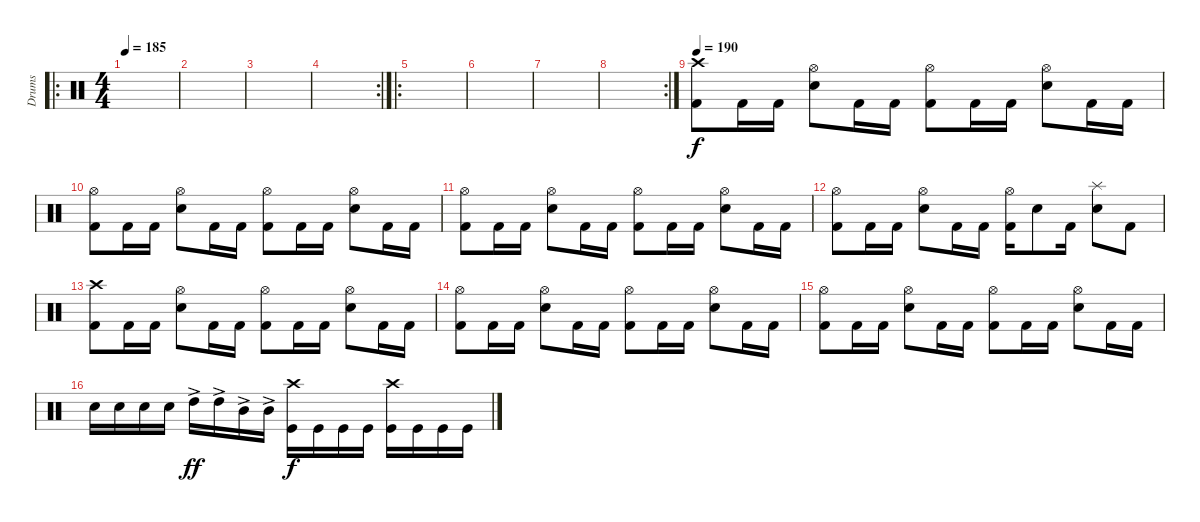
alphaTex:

\track ("Drums" "Drums") {instrument percussion}
\staff {score}
\articulation defaults
\ro
\ts (4 4)
\tempo 185
\clef neutral
\ks c
|
|
|
\rc 2
|
\ro
|
|
|
\rc 2
|
\tempo 185
\tempo 190
("Kick (hit) 2" "Crash high (hit)").8 "Kick (hit) 2".16 "Kick (hit) 2".16 ("Snare (hit) 2" "Hi-Hat (open)").8 "Kick (hit) 2".16 "Kick (hit) 2".16 ("Kick (hit) 2" "Hi-Hat (open)").8 "Kick (hit) 2".16 "Kick (hit) 2".16 ("Snare (hit) 2" "Hi-Hat (open)").8 "Kick (hit) 2".16 "Kick (hit) 2".16 |
("Kick (hit) 2" "Hi-Hat (open)").8 "Kick (hit) 2".16 "Kick (hit) 2".16 ("Snare (hit) 2" "Hi-Hat (open)").8 "Kick (hit) 2".16 "Kick (hit) 2".16 ("Kick (hit) 2" "Hi-Hat (open)").8 "Kick (hit) 2".16 "Kick (hit) 2".16 ("Snare (hit) 2" "Hi-Hat (open)").8 "Kick (hit) 2".16 "Kick (hit) 2".16 |
("Kick (hit) 2" "Hi-Hat (open)").8 "Kick (hit) 2".16 "Kick (hit) 2".16 ("Snare (hit) 2" "Hi-Hat (open)").8 "Kick (hit) 2".16 "Kick (hit) 2".16 ("Kick (hit) 2" "Hi-Hat (open)").8 "Kick (hit) 2".16 "Kick (hit) 2".16 ("Snare (hit) 2" "Hi-Hat (open)").8 "Kick (hit) 2".16 "Kick (hit) 2".16 |
("Kick (hit) 2" "Hi-Hat (open)").8 "Kick (hit) 2".16 "Kick (hit) 2".16 ("Snare (hit) 2" "Hi-Hat (open)").8 "Kick (hit) 2".16 "Kick (hit) 2".16 ("Kick (hit) 2" "Hi-Hat (open)").16 "Snare (hit) 2".8 "Kick (hit) 2".16 ("Splash (hit)" "Snare (hit) 2").8 "Kick (hit) 2".8 |
("Kick (hit) 2" "Crash high (hit)").8 "Kick (hit) 2".16 "Kick (hit) 2".16 ("Snare (hit) 2" "Hi-Hat (open)").8 "Kick (hit) 2".16 "Kick (hit) 2".16 ("Kick (hit) 2" "Hi-Hat (open)").8 "Kick (hit) 2".16 "Kick (hit) 2".16 ("Snare (hit) 2" "Hi-Hat (open)").8 "Kick (hit) 2".16 "Kick (hit) 2".16 |
("Kick (hit) 2" "Hi-Hat (open)").8 "Kick (hit) 2".16 "Kick (hit) 2".16 ("Snare (hit) 2" "Hi-Hat (open)").8 "Kick (hit) 2".16 "Kick (hit) 2".16 ("Kick (hit) 2" "Hi-Hat (open)").8 "Kick (hit) 2".16 "Kick (hit) 2".16 ("Snare (hit) 2" "Hi-Hat (open)").8 "Kick (hit) 2".16 "Kick (hit) 2".16 |
("Kick (hit) 2" "Hi-Hat (open)").8 "Kick (hit) 2".16 "Kick (hit) 2".16 ("Snare (hit) 2" "Hi-Hat (open)").8 "Kick (hit) 2".16 "Kick (hit) 2".16 ("Kick (hit) 2" "Hi-Hat (open)").8 "Kick (hit) 2".16 "Kick (hit) 2".16 ("Snare (hit) 2" "Hi-Hat (open)").8 "Kick (hit) 2".16 "Kick (hit) 2".16 |
"Electric Snare (hit)".16 "Snare (hit) 2".16 "Snare (hit) 2".16 "Snare (hit) 2".16 "High Tom (hit)"{ac}.16{dy ff} "High Tom (hit)"{ac}.16 "Mid Tom (hit)"{ac}.16 "Mid Tom (hit)"{ac}.16 ("Kick (hit)" "Crash high (hit)").16{dy f} "Kick (hit)".16 "Kick (hit)".16 "Kick (hit)".16 ("Kick (hit)" "Crash high (hit)").16 "Kick (hit)".16 "Kick (hit)".16 "Kick (hit)".16
